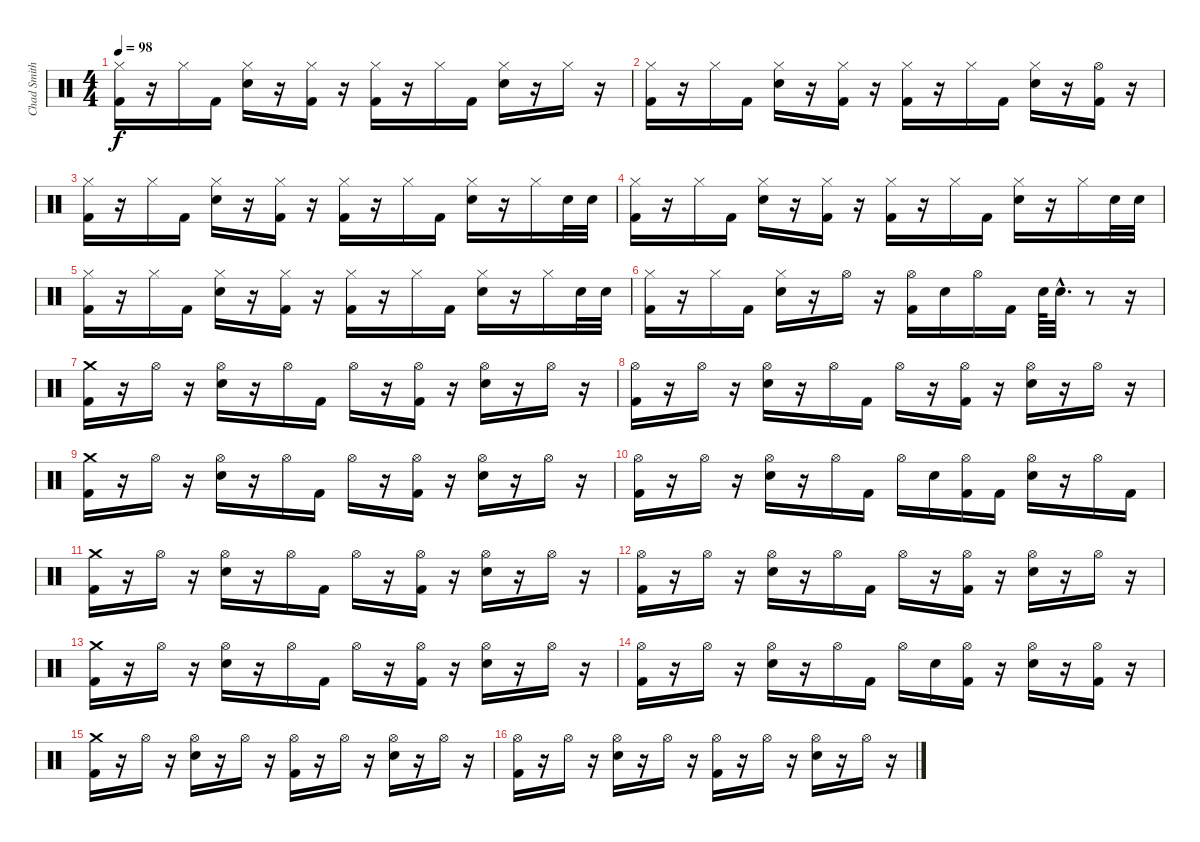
\track ("Chad Smith" "Chad Smith") {instrument percussion}
\staff {score}
\articulation defaults
\ts (4 4)
\tempo 98
\clef neutral
\ks c
("Kick (hit) 2" "Hi-Hat (closed)").16{dy f} r.16 "Hi-Hat (closed)".16 "Kick (hit) 2".16 ("Electric Snare (hit)" "Hi-Hat (closed)").16 r.16 ("Kick (hit) 2" "Hi-Hat (closed)").16 r.16 ("Kick (hit) 2" "Hi-Hat (closed)").16 r.16 "Hi-Hat (closed)".16 "Kick (hit) 2".16 ("Electric Snare (hit)" "Hi-Hat (closed)").16 r.16 "Hi-Hat (closed)".16 r.16 |
("Hi-Hat (closed)" "Kick (hit) 2").16 r.16 "Hi-Hat (closed)".16 "Kick (hit) 2".16 ("Electric Snare (hit)" "Hi-Hat (closed)").16 r.16 ("Kick (hit) 2" "Hi-Hat (closed)").16 r.16 ("Kick (hit) 2" "Hi-Hat (closed)").16 r.16 "Hi-Hat (closed)".16 "Kick (hit) 2".16 ("Electric Snare (hit)" "Hi-Hat (closed)").16 r.16 ("Kick (hit) 2" "Hi-Hat (open)").16 r.16 |
("Kick (hit) 2" "Hi-Hat (closed)").16 r.16 "Hi-Hat (closed)".16 "Kick (hit) 2".16 ("Electric Snare (hit)" "Hi-Hat (closed)").16 r.16 ("Kick (hit) 2" "Hi-Hat (closed)").16 r.16 ("Kick (hit) 2" "Hi-Hat (closed)").16 r.16 "Hi-Hat (closed)".16 "Kick (hit) 2".16 ("Electric Snare (hit)" "Hi-Hat (closed)").16 r.16 "Hi-Hat (closed)".16 "Electric Snare (hit)".32 "Electric Snare (hit)".32 |
("Kick (hit) 2" "Hi-Hat (closed)").16 r.16 "Hi-Hat (closed)".16 "Kick (hit) 2".16 ("Electric Snare (hit)" "Hi-Hat (closed)").16 r.16 ("Kick (hit) 2" "Hi-Hat (closed)").16 r.16 ("Kick (hit) 2" "Hi-Hat (closed)").16 r.16 "Hi-Hat (closed)".16 "Kick (hit) 2".16 ("Electric Snare (hit)" "Hi-Hat (closed)").16 r.16 "Hi-Hat (closed)".16 "Electric Snare (hit)".32 "Electric Snare (hit)".32 |
("Kick (hit) 2" "Hi-Hat (closed)").16 r.16 "Hi-Hat (closed)".16 "Kick (hit) 2".16 ("Electric Snare (hit)" "Hi-Hat (closed)").16 r.16 ("Kick (hit) 2" "Hi-Hat (closed)").16 r.16 ("Kick (hit) 2" "Hi-Hat (closed)").16 r.16 "Hi-Hat (closed)".16 "Kick (hit) 2".16 ("Electric Snare (hit)" "Hi-Hat (closed)").16 r.16 "Hi-Hat (closed)".16 "Electric Snare (hit)".32 "Electric Snare (hit)".32 |
("Hi-Hat (closed)" "Kick (hit) 2").16 r.16 "Hi-Hat (closed)".16 "Kick (hit) 2".16 ("Electric Snare (hit)" "Hi-Hat (closed)").16 r.16 "Hi-Hat (open)".16 r.16 ("Kick (hit) 2" "Hi-Hat (open)").16 "Electric Snare (hit)".16 "Hi-Hat (open)".16 "Kick (hit) 2".16 "Electric Snare (hit)".64 "Electric Snare (hit)"{hac}.32{d} r.8 r.16 |
("Kick (hit) 2" "Crash medium (hit)").16 r.16 "Hi-Hat (open)".16 r.16 ("Electric Snare (hit)" "Hi-Hat (open)").16 r.16 "Hi-Hat (open)".16 "Kick (hit) 2".16 "Hi-Hat (open)".16 r.16 ("Hi-Hat (open)" "Kick (hit) 2").16 r.16 ("Hi-Hat (open)" "Electric Snare (hit)").16 r.16 "Hi-Hat (open)".16 r.16 |
("Hi-Hat (open)" "Kick (hit) 2").16 r.16 "Hi-Hat (open)".16 r.16 ("Hi-Hat (open)" "Electric Snare (hit)").16 r.16 "Hi-Hat (open)".16 "Kick (hit) 2".16 "Hi-Hat (open)".16 r.16 ("Hi-Hat (open)" "Kick (hit) 2").16 r.16 ("Hi-Hat (open)" "Electric Snare (hit)").16 r.16 "Hi-Hat (open)".16 r.16 |
("Kick (hit) 2" "Crash medium (hit)").16 r.16 "Hi-Hat (open)".16 r.16 ("Electric Snare (hit)" "Hi-Hat (open)").16 r.16 "Hi-Hat (open)".16 "Kick (hit) 2".16 "Hi-Hat (open)".16 r.16 ("Hi-Hat (open)" "Kick (hit) 2").16 r.16 ("Hi-Hat (open)" "Electric Snare (hit)").16 r.16 "Hi-Hat (open)".16 r.16 |
("Hi-Hat (open)" "Kick (hit) 2").16 r.16 "Hi-Hat (open)".16 r.16 ("Hi-Hat (open)" "Electric Snare (hit)").16 r.16 "Hi-Hat (open)".16 "Kick (hit) 2".16 "Hi-Hat (open)".16 "Electric Snare (hit)".16 ("Hi-Hat (open)" "Kick (hit) 2").16 "Kick (hit) 2".16 ("Hi-Hat (open)" "Electric Snare (hit)").16 r.16 "Hi-Hat (open)".16 "Kick (hit) 2".16 |
("Kick (hit) 2" "Crash medium (hit)").16 r.16 "Hi-Hat (open)".16 r.16 ("Electric Snare (hit)" "Hi-Hat (open)").16 r.16 "Hi-Hat (open)".16 "Kick (hit) 2".16 "Hi-Hat (open)".16 r.16 ("Hi-Hat (open)" "Kick (hit) 2").16 r.16 ("Hi-Hat (open)" "Electric Snare (hit)").16 r.16 "Hi-Hat (open)".16 r.16 |
("Hi-Hat (open)" "Kick (hit) 2").16 r.16 "Hi-Hat (open)".16 r.16 ("Hi-Hat (open)" "Electric Snare (hit)").16 r.16 "Hi-Hat (open)".16 "Kick (hit) 2".16 "Hi-Hat (open)".16 r.16 ("Hi-Hat (open)" "Kick (hit) 2").16 r.16 ("Hi-Hat (open)" "Electric Snare (hit)").16 r.16 "Hi-Hat (open)".16 r.16 |
("Kick (hit) 2" "Crash medium (hit)").16 r.16 "Hi-Hat (open)".16 r.16 ("Electric Snare (hit)" "Hi-Hat (open)").16 r.16 "Hi-Hat (open)".16 "Kick (hit) 2".16 "Hi-Hat (open)".16 r.16 ("Kick (hit) 2" "Hi-Hat (open)").16 r.16 ("Hi-Hat (open)" "Electric Snare (hit)").16 r.16 "Hi-Hat (open)".16 r.16 |
("Hi-Hat (open)" "Kick (hit) 2").16 r.16 "Hi-Hat (open)".16 r.16 ("Hi-Hat (open)" "Electric Snare (hit)").16 r.16 "Hi-Hat (open)".16 "Kick (hit) 2".16 "Hi-Hat (open)".16 "Electric Snare (hit)".16 ("Hi-Hat (open)" "Kick (hit) 2").16 r.16 ("Hi-Hat (open)" "Electric Snare (hit)").16 r.16 ("Kick (hit) 2" "Hi-Hat (open)").16 r.16 |
("Kick (hit) 2" "Crash medium (hit)").16 r.16 "Hi-Hat (open)".16 r.16 ("Electric Snare (hit)" "Hi-Hat (open)").16 r.16 "Hi-Hat (open)".16 r.16 ("Kick (hit) 2" "Hi-Hat (open)").16 r.16 "Hi-Hat (open)".16 r.16 ("Hi-Hat (open)" "Electric Snare (hit)").16 r.16 "Hi-Hat (open)".16 r.16 |
("Hi-Hat (open)" "Kick (hit) 2").16 r.16 "Hi-Hat (open)".16 r.16 ("Hi-Hat (open)" "Electric Snare (hit)").16 r.16 "Hi-Hat (open)".16 r.16 ("Kick (hit) 2" "Hi-Hat (open)").16 r.16 "Hi-Hat (open)".16 r.16 ("Hi-Hat (open)" "Electric Snare (hit)").16 r.16 "Hi-Hat (open)".16 r.16
